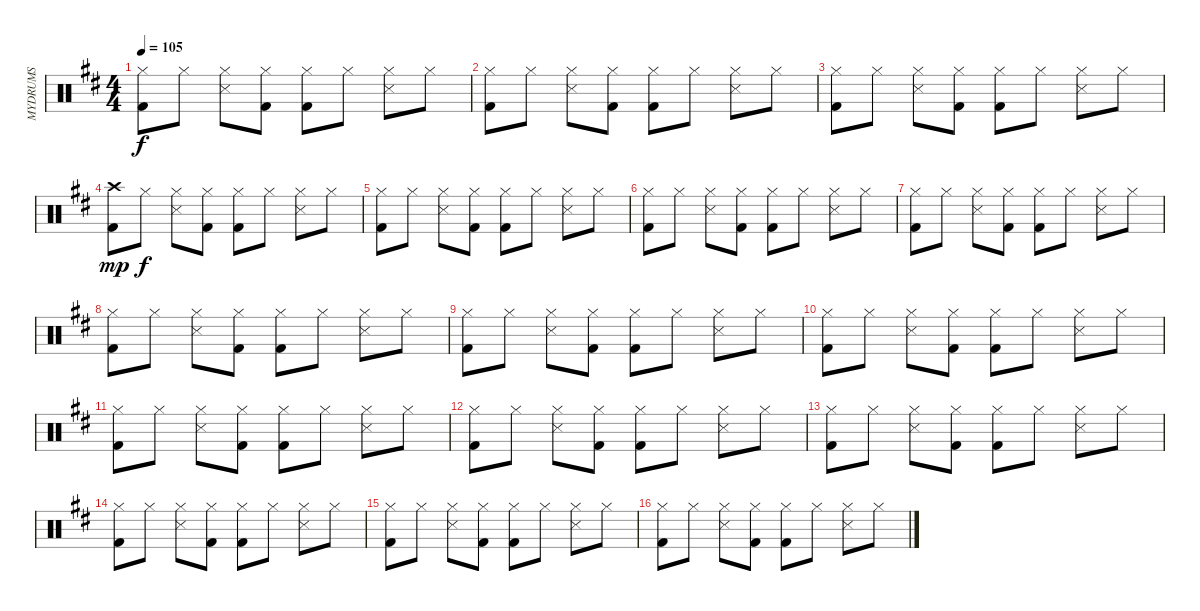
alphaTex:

\track ("MYDRUMS" "MYDRUMS") {solo instrument percussion}
\staff {score}
\articulation defaults
\ts (4 4)
\tempo 105
\clef neutral
\ks d
("Hi-Hat (closed)" "Kick (hit) 2").8{dy f} "Hi-Hat (closed)".8 ("Hi-Hat (closed)" "Snare (side stick) 3").8 ("Hi-Hat (closed)" "Kick (hit) 2").8 ("Hi-Hat (closed)" "Kick (hit) 2").8 "Hi-Hat (closed)".8 ("Hi-Hat (closed)" "Snare (side stick) 3").8 "Hi-Hat (closed)".8 |
("Hi-Hat (closed)" "Kick (hit) 2").8 "Hi-Hat (closed)".8 ("Hi-Hat (closed)" "Snare (side stick) 3").8 ("Hi-Hat (closed)" "Kick (hit) 2").8 ("Hi-Hat (closed)" "Kick (hit) 2").8 "Hi-Hat (closed)".8 ("Hi-Hat (closed)" "Snare (side stick) 3").8 "Hi-Hat (closed)".8 |
("Hi-Hat (closed)" "Kick (hit) 2").8 "Hi-Hat (closed)".8 ("Hi-Hat (closed)" "Snare (side stick) 3").8 ("Hi-Hat (closed)" "Kick (hit) 2").8 ("Hi-Hat (closed)" "Kick (hit) 2").8 "Hi-Hat (closed)".8 ("Hi-Hat (closed)" "Snare (side stick) 3").8 "Hi-Hat (closed)".8 |
("Crash high (hit)" "Kick (hit) 2").8{dy mp} "Hi-Hat (closed)".8{dy f} ("Hi-Hat (closed)" "Snare (side stick) 3").8 ("Hi-Hat (closed)" "Kick (hit) 2").8 ("Hi-Hat (closed)" "Kick (hit) 2").8 "Hi-Hat (closed)".8 ("Hi-Hat (closed)" "Snare (side stick) 3").8 "Hi-Hat (closed)".8 |
("Hi-Hat (closed)" "Kick (hit) 2").8 "Hi-Hat (closed)".8 ("Hi-Hat (closed)" "Snare (side stick) 3").8 ("Hi-Hat (closed)" "Kick (hit) 2").8 ("Hi-Hat (closed)" "Kick (hit) 2").8 "Hi-Hat (closed)".8 ("Hi-Hat (closed)" "Snare (side stick) 3").8 "Hi-Hat (closed)".8 |
("Hi-Hat (closed)" "Kick (hit) 2").8 "Hi-Hat (closed)".8 ("Hi-Hat (closed)" "Snare (side stick) 3").8 ("Hi-Hat (closed)" "Kick (hit) 2").8 ("Hi-Hat (closed)" "Kick (hit) 2").8 "Hi-Hat (closed)".8 ("Hi-Hat (closed)" "Snare (side stick) 3").8 "Hi-Hat (closed)".8 |
("Hi-Hat (closed)" "Kick (hit) 2").8 "Hi-Hat (closed)".8 ("Hi-Hat (closed)" "Snare (side stick) 3").8 ("Hi-Hat (closed)" "Kick (hit) 2").8 ("Hi-Hat (closed)" "Kick (hit) 2").8 "Hi-Hat (closed)".8 ("Hi-Hat (closed)" "Snare (side stick) 3").8 "Hi-Hat (closed)".8 |
("Hi-Hat (closed)" "Kick (hit) 2").8 "Hi-Hat (closed)".8 ("Hi-Hat (closed)" "Snare (side stick) 3").8 ("Hi-Hat (closed)" "Kick (hit) 2").8 ("Hi-Hat (closed)" "Kick (hit) 2").8 "Hi-Hat (closed)".8 ("Hi-Hat (closed)" "Snare (side stick) 3").8 "Hi-Hat (closed)".8 |
("Hi-Hat (closed)" "Kick (hit) 2").8 "Hi-Hat (closed)".8 ("Hi-Hat (closed)" "Snare (side stick) 3").8 ("Hi-Hat (closed)" "Kick (hit) 2").8 ("Hi-Hat (closed)" "Kick (hit) 2").8 "Hi-Hat (closed)".8 ("Hi-Hat (closed)" "Snare (side stick) 3").8 "Hi-Hat (closed)".8 |
("Hi-Hat (closed)" "Kick (hit) 2").8 "Hi-Hat (closed)".8 ("Hi-Hat (closed)" "Snare (side stick) 3").8 ("Hi-Hat (closed)" "Kick (hit) 2").8 ("Hi-Hat (closed)" "Kick (hit) 2").8 "Hi-Hat (closed)".8 ("Hi-Hat (closed)" "Snare (side stick) 3").8 "Hi-Hat (closed)".8 |
("Hi-Hat (closed)" "Kick (hit) 2").8 "Hi-Hat (closed)".8 ("Hi-Hat (closed)" "Snare (side stick) 3").8 ("Hi-Hat (closed)" "Kick (hit) 2").8 ("Hi-Hat (closed)" "Kick (hit) 2").8 "Hi-Hat (closed)".8 ("Hi-Hat (closed)" "Snare (side stick) 3").8 "Hi-Hat (closed)".8 |
("Hi-Hat (closed)" "Kick (hit) 2").8 "Hi-Hat (closed)".8 ("Hi-Hat (closed)" "Snare (side stick) 3").8 ("Hi-Hat (closed)" "Kick (hit) 2").8 ("Hi-Hat (closed)" "Kick (hit) 2").8 "Hi-Hat (closed)".8 ("Hi-Hat (closed)" "Snare (side stick) 3").8 "Hi-Hat (closed)".8 |
("Hi-Hat (closed)" "Kick (hit) 2").8 "Hi-Hat (closed)".8 ("Hi-Hat (closed)" "Snare (side stick) 3").8 ("Hi-Hat (closed)" "Kick (hit) 2").8 ("Hi-Hat (closed)" "Kick (hit) 2").8 "Hi-Hat (closed)".8 ("Hi-Hat (closed)" "Snare (side stick) 3").8 "Hi-Hat (closed)".8 |
("Hi-Hat (closed)" "Kick (hit) 2").8 "Hi-Hat (closed)".8 ("Hi-Hat (closed)" "Snare (side stick) 3").8 ("Hi-Hat (closed)" "Kick (hit) 2").8 ("Hi-Hat (closed)" "Kick (hit) 2").8 "Hi-Hat (closed)".8 ("Hi-Hat (closed)" "Snare (side stick) 3").8 "Hi-Hat (closed)".8 |
("Hi-Hat (closed)" "Kick (hit) 2").8 "Hi-Hat (closed)".8 ("Hi-Hat (closed)" "Snare (side stick) 3").8 ("Hi-Hat (closed)" "Kick (hit) 2").8 ("Hi-Hat (closed)" "Kick (hit) 2").8 "Hi-Hat (closed)".8 ("Hi-Hat (closed)" "Snare (side stick) 3").8 "Hi-Hat (closed)".8 |
("Hi-Hat (closed)" "Kick (hit) 2").8 "Hi-Hat (closed)".8 ("Hi-Hat (closed)" "Snare (side stick) 3").8 ("Hi-Hat (closed)" "Kick (hit) 2").8 ("Hi-Hat (closed)" "Kick (hit) 2").8 "Hi-Hat (closed)".8 ("Hi-Hat (closed)" "Snare (side stick) 3").8 "Hi-Hat (closed)".8
